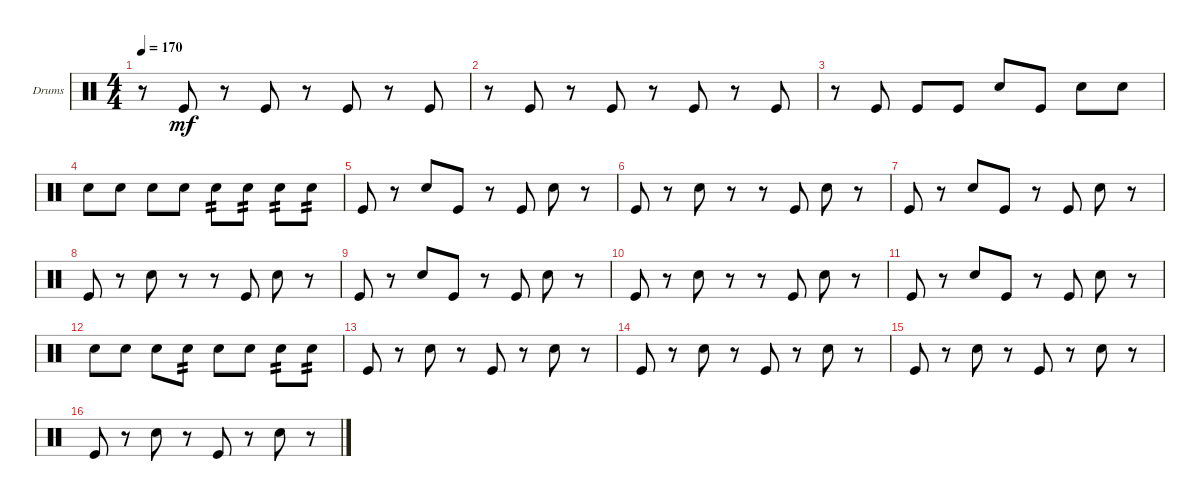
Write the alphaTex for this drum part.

\defaultSystemsLayout 4
\bracketExtendMode groupsimilarinstruments
\firstSystemTrackNameOrientation horizontal
\otherSystemsTrackNameOrientation horizontal
\track ("Drumkit" "Drums") {instrument percussion}
\staff {score}
\articulation defaults
\ts (4 4)
\tempo 170
\clef neutral
\ks c
r.8{dy mf} "Kick (hit)".8 r.8 "Kick (hit)".8 r.8 "Kick (hit)".8 r.8 "Kick (hit)".8 |
r.8 "Kick (hit)".8 r.8 "Kick (hit)".8 r.8 "Kick (hit)".8 r.8 "Kick (hit)".8 |
r.8 "Kick (hit)".8 "Kick (hit)".8 "Kick (hit)".8 "Snare (hit) 2".8 "Kick (hit)".8 "Snare (hit) 2".8 "Snare (hit) 2".8 |
"Snare (hit) 2".8 "Snare (hit) 2".8 "Snare (hit) 2".8 "Snare (hit) 2".8 "Snare (hit) 2".8{tp 2} "Snare (hit) 2".8{tp 2} "Snare (hit) 2".8{tp 2} "Snare (hit) 2".8{tp 2} |
"Kick (hit)".8 r.8 "Snare (hit) 2".8 "Kick (hit)".8 r.8 "Kick (hit)".8 "Snare (hit) 2".8 r.8 |
"Kick (hit)".8 r.8 "Snare (hit) 2".8 r.8 r.8 "Kick (hit)".8 "Snare (hit) 2".8 r.8 |
"Kick (hit)".8 r.8 "Snare (hit) 2".8 "Kick (hit)".8 r.8 "Kick (hit)".8 "Snare (hit) 2".8 r.8 |
"Kick (hit)".8 r.8 "Snare (hit) 2".8 r.8 r.8 "Kick (hit)".8 "Snare (hit) 2".8 r.8 |
"Kick (hit)".8 r.8 "Snare (hit) 2".8 "Kick (hit)".8 r.8 "Kick (hit)".8 "Snare (hit) 2".8 r.8 |
"Kick (hit)".8 r.8 "Snare (hit) 2".8 r.8 r.8 "Kick (hit)".8 "Snare (hit) 2".8 r.8 |
"Kick (hit)".8 r.8 "Snare (hit) 2".8 "Kick (hit)".8 r.8 "Kick (hit)".8 "Snare (hit) 2".8 r.8 |
"Snare (hit) 2".8 "Snare (hit) 2".8 "Snare (hit) 2".8 "Snare (hit) 2".8{tp 2} "Snare (hit) 2".8 "Snare (hit) 2".8 "Snare (hit) 2".8{tp 2} "Snare (hit) 2".8{tp 2} |
"Kick (hit)".8 r.8 "Snare (hit) 2".8 r.8 "Kick (hit)".8 r.8 "Snare (hit) 2".8 r.8 |
"Kick (hit)".8 r.8 "Snare (hit) 2".8 r.8 "Kick (hit)".8 r.8 "Snare (hit) 2".8 r.8 |
"Kick (hit)".8 r.8 "Snare (hit) 2".8 r.8 "Kick (hit)".8 r.8 "Snare (hit) 2".8 r.8 |
"Kick (hit)".8 r.8 "Snare (hit) 2".8 r.8 "Kick (hit)".8 r.8 "Snare (hit) 2".8 r.8
